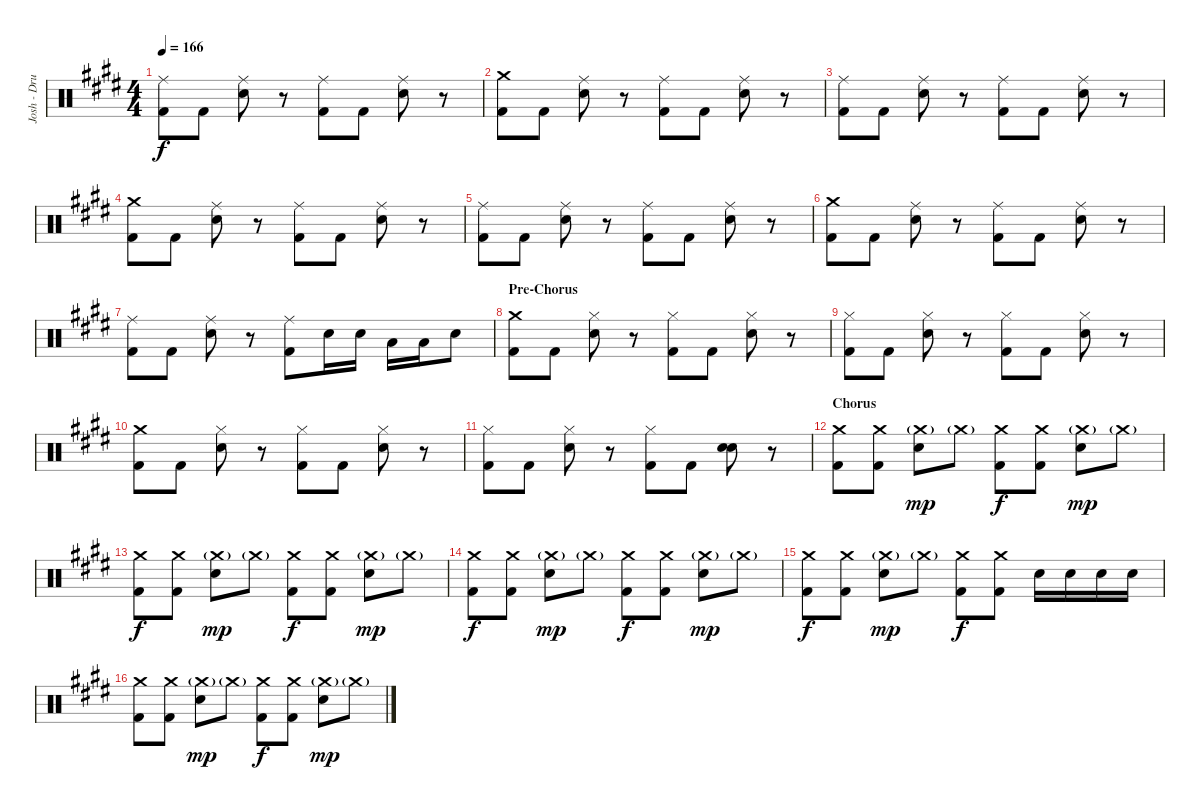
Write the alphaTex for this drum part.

\track ("Josh - Drums" "Josh - Dru") {instrument percussion}
\staff {score}
\articulation defaults
\ts (4 4)
\tempo 166
\clef neutral
\ks e
("Ride (middle)" "Kick (hit) 2").8{dy f} "Kick (hit) 2".8 ("Ride (middle)" "Electric Snare (hit)").8 r.8 ("Ride (middle)" "Kick (hit) 2").8 "Kick (hit) 2".8 ("Ride (middle)" "Electric Snare (hit)").8 r.8 |
("Crash medium (hit)" "Kick (hit) 2").8 "Kick (hit) 2".8 ("Ride (middle)" "Electric Snare (hit)").8 r.8 ("Ride (middle)" "Kick (hit) 2").8 "Kick (hit) 2".8 ("Ride (middle)" "Electric Snare (hit)").8 r.8 |
("Ride (middle)" "Kick (hit) 2").8 "Kick (hit) 2".8 ("Ride (middle)" "Electric Snare (hit)").8 r.8 ("Ride (middle)" "Kick (hit) 2").8 "Kick (hit) 2".8 ("Ride (middle)" "Electric Snare (hit)").8 r.8 |
("Crash medium (hit)" "Kick (hit) 2").8 "Kick (hit) 2".8 ("Ride (middle)" "Electric Snare (hit)").8 r.8 ("Ride (middle)" "Kick (hit) 2").8 "Kick (hit) 2".8 ("Ride (middle)" "Electric Snare (hit)").8 r.8 |
("Ride (middle)" "Kick (hit) 2").8 "Kick (hit) 2".8 ("Ride (middle)" "Electric Snare (hit)").8 r.8 ("Ride (middle)" "Kick (hit) 2").8 "Kick (hit) 2".8 ("Ride (middle)" "Electric Snare (hit)").8 r.8 |
("Crash medium (hit)" "Kick (hit) 2").8 "Kick (hit) 2".8 ("Ride (middle)" "Electric Snare (hit)").8 r.8 ("Ride (middle)" "Kick (hit) 2").8 "Kick (hit) 2".8 ("Ride (middle)" "Electric Snare (hit)").8 r.8 |
("Ride (middle)" "Kick (hit) 2").8 "Kick (hit) 2".8 ("Ride (middle)" "Electric Snare (hit)").8 r.8 ("Ride (middle)" "Kick (hit) 2").8 "Electric Snare (hit)".16 "Electric Snare (hit)".16 "Low Tom (hit)".16 "Low Tom (hit)".16 "Electric Snare (hit)".8 |
\section ("" "Pre-Chorus")
("Crash medium (hit)" "Kick (hit) 2").8 "Kick (hit) 2".8 ("Hi-Hat (closed)" "Electric Snare (hit)").8 r.8 ("Hi-Hat (closed)" "Kick (hit) 2").8 "Kick (hit) 2".8 ("Hi-Hat (closed)" "Electric Snare (hit)").8 r.8 |
("Hi-Hat (closed)" "Kick (hit) 2").8 "Kick (hit) 2".8 ("Hi-Hat (closed)" "Electric Snare (hit)").8 r.8 ("Hi-Hat (closed)" "Kick (hit) 2").8 "Kick (hit) 2".8 ("Hi-Hat (closed)" "Electric Snare (hit)").8 r.8 |
("Crash medium (hit)" "Kick (hit) 2").8 "Kick (hit) 2".8 ("Hi-Hat (closed)" "Electric Snare (hit)").8 r.8 ("Hi-Hat (closed)" "Kick (hit) 2").8 "Kick (hit) 2".8 ("Hi-Hat (closed)" "Electric Snare (hit)").8 r.8 |
("Hi-Hat (closed)" "Kick (hit) 2").8 "Kick (hit) 2".8 ("Hi-Hat (closed)" "Electric Snare (hit)").8 r.8 ("Hi-Hat (closed)" "Kick (hit) 2").8 "Kick (hit) 2".8 ("Electric Snare (hit)" "Electric Snare (hit)").8 r.8 |
\section ("" "Chorus")
("Crash medium (hit)" "Kick (hit) 2").8 ("Crash medium (hit)" "Kick (hit) 2").8 ("Crash medium (hit)"{g} "Electric Snare (hit)").8{dy mp} "Crash medium (hit)"{g}.8 ("Crash medium (hit)" "Kick (hit) 2").8{dy f} ("Crash medium (hit)" "Kick (hit) 2").8 ("Crash medium (hit)"{g} "Electric Snare (hit)").8{dy mp} "Crash medium (hit)"{g}.8 |
("Crash medium (hit)" "Kick (hit) 2").8{dy f} ("Crash medium (hit)" "Kick (hit) 2").8 ("Crash medium (hit)"{g} "Electric Snare (hit)").8{dy mp} "Crash medium (hit)"{g}.8 ("Crash medium (hit)" "Kick (hit) 2").8{dy f} ("Crash medium (hit)" "Kick (hit) 2").8 ("Crash medium (hit)"{g} "Electric Snare (hit)").8{dy mp} "Crash medium (hit)"{g}.8 |
("Crash medium (hit)" "Kick (hit) 2").8{dy f} ("Crash medium (hit)" "Kick (hit) 2").8 ("Crash medium (hit)"{g} "Electric Snare (hit)").8{dy mp} "Crash medium (hit)"{g}.8 ("Crash medium (hit)" "Kick (hit) 2").8{dy f} ("Crash medium (hit)" "Kick (hit) 2").8 ("Crash medium (hit)"{g} "Electric Snare (hit)").8{dy mp} "Crash medium (hit)"{g}.8 |
("Crash medium (hit)" "Kick (hit) 2").8{dy f} ("Crash medium (hit)" "Kick (hit) 2").8 ("Crash medium (hit)"{g} "Electric Snare (hit)").8{dy mp} "Crash medium (hit)"{g}.8 ("Crash medium (hit)" "Kick (hit) 2").8{dy f} ("Crash medium (hit)" "Kick (hit) 2").8 "Electric Snare (hit)".16 "Electric Snare (hit)".16 "Electric Snare (hit)".16 "Electric Snare (hit)".16 |
("Crash medium (hit)" "Kick (hit) 2").8 ("Crash medium (hit)" "Kick (hit) 2").8 ("Crash medium (hit)"{g} "Electric Snare (hit)").8{dy mp} "Crash medium (hit)"{g}.8 ("Crash medium (hit)" "Kick (hit) 2").8{dy f} ("Crash medium (hit)" "Kick (hit) 2").8 ("Crash medium (hit)"{g} "Electric Snare (hit)").8{dy mp} "Crash medium (hit)"{g}.8
